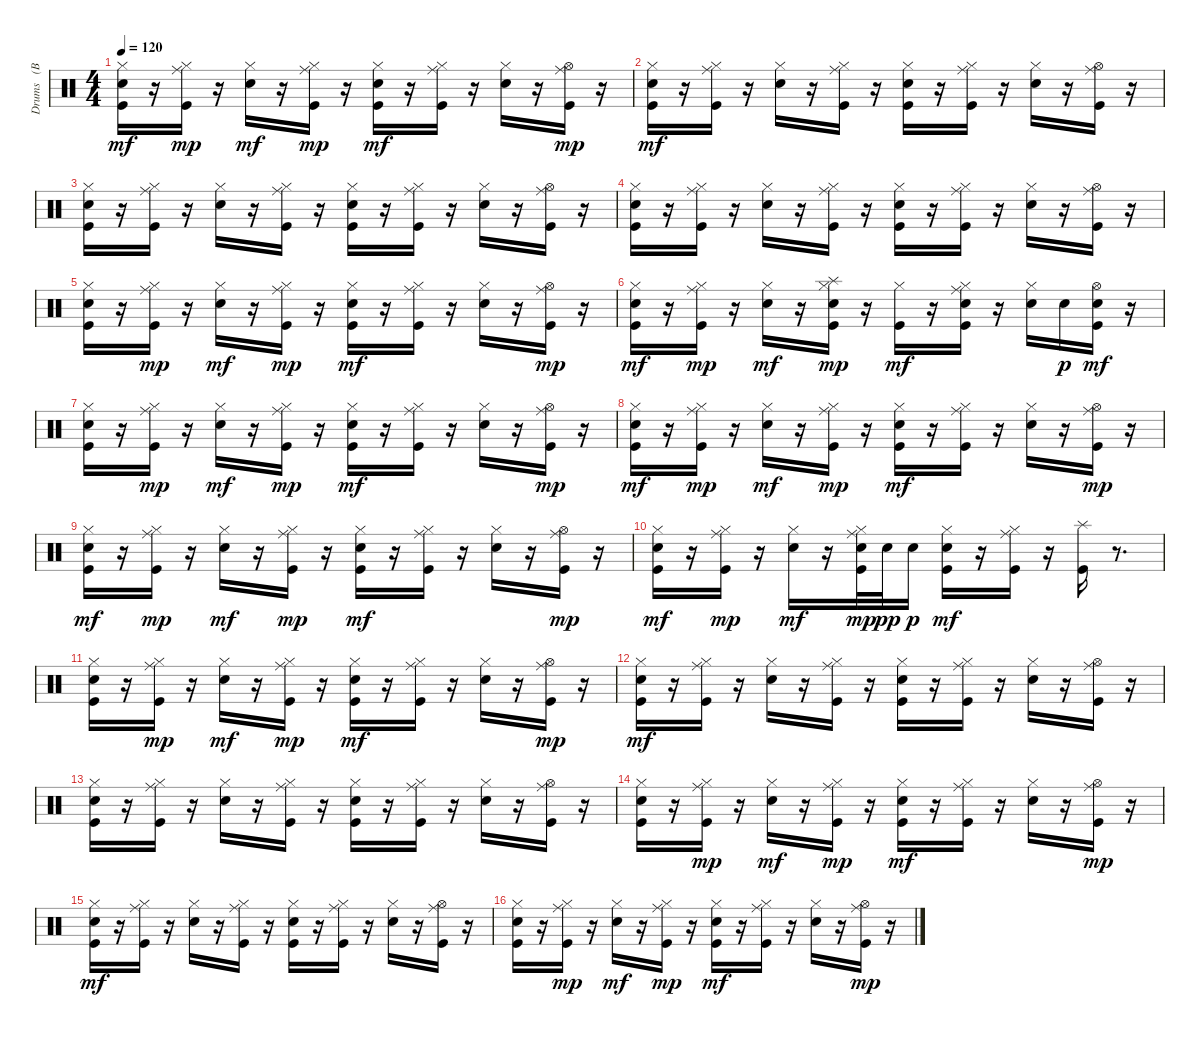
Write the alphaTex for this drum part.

\track ("Drums   (BB)" "Drums   (B") {instrument percussion}
\staff {score}
\articulation defaults
\ts (4 4)
\tempo 120
\clef neutral
\ks c
("Kick (hit)" "Electric Snare (hit)" "Hi-Hat (closed)").16{dy mf} r.16 ("Kick (hit)" "Hi-Hat (closed)" "Ride (middle)").16{dy mp} r.16 ("Electric Snare (hit)" "Hi-Hat (closed)").16{dy mf} r.16 ("Kick (hit)" "Hi-Hat (closed)" "Ride (middle)").16{dy mp} r.16 ("Kick (hit)" "Electric Snare (hit)" "Hi-Hat (closed)").16{dy mf} r.16 ("Kick (hit)" "Hi-Hat (closed)" "Ride (middle)").16 r.16 ("Electric Snare (hit)" "Hi-Hat (closed)").16 r.16 ("Kick (hit)" "Hi-Hat (open)" "Ride (middle)").16{dy mp} r.16 |
("Kick (hit)" "Electric Snare (hit)" "Hi-Hat (closed)").16{dy mf} r.16 ("Kick (hit)" "Hi-Hat (closed)" "Ride (middle)").16 r.16 ("Electric Snare (hit)" "Hi-Hat (closed)").16 r.16 ("Kick (hit)" "Hi-Hat (closed)" "Ride (middle)").16 r.16 ("Kick (hit)" "Electric Snare (hit)" "Hi-Hat (closed)").16 r.16 ("Kick (hit)" "Hi-Hat (closed)" "Ride (middle)").16 r.16 ("Electric Snare (hit)" "Hi-Hat (closed)").16 r.16 ("Kick (hit)" "Hi-Hat (open)" "Ride (middle)").16 r.16 |
("Kick (hit)" "Electric Snare (hit)" "Hi-Hat (closed)").16 r.16 ("Kick (hit)" "Hi-Hat (closed)" "Ride (middle)").16 r.16 ("Electric Snare (hit)" "Hi-Hat (closed)").16 r.16 ("Kick (hit)" "Hi-Hat (closed)" "Ride (middle)").16 r.16 ("Kick (hit)" "Electric Snare (hit)" "Hi-Hat (closed)").16 r.16 ("Kick (hit)" "Hi-Hat (closed)" "Ride (middle)").16 r.16 ("Electric Snare (hit)" "Hi-Hat (closed)").16 r.16 ("Kick (hit)" "Hi-Hat (open)" "Ride (middle)").16 r.16 |
("Kick (hit)" "Electric Snare (hit)" "Hi-Hat (closed)").16 r.16 ("Kick (hit)" "Hi-Hat (closed)" "Ride (middle)").16 r.16 ("Electric Snare (hit)" "Hi-Hat (closed)").16 r.16 ("Kick (hit)" "Hi-Hat (closed)" "Ride (middle)").16 r.16 ("Kick (hit)" "Electric Snare (hit)" "Hi-Hat (closed)").16 r.16 ("Kick (hit)" "Hi-Hat (closed)" "Ride (middle)").16 r.16 ("Electric Snare (hit)" "Hi-Hat (closed)").16 r.16 ("Kick (hit)" "Hi-Hat (open)" "Ride (middle)").16 r.16 |
("Kick (hit)" "Electric Snare (hit)" "Hi-Hat (closed)").16 r.16 ("Kick (hit)" "Hi-Hat (closed)" "Ride (middle)").16{dy mp} r.16 ("Electric Snare (hit)" "Hi-Hat (closed)").16{dy mf} r.16 ("Kick (hit)" "Hi-Hat (closed)" "Ride (middle)").16{dy mp} r.16 ("Kick (hit)" "Electric Snare (hit)" "Hi-Hat (closed)").16{dy mf} r.16 ("Kick (hit)" "Hi-Hat (closed)" "Ride (middle)").16 r.16 ("Electric Snare (hit)" "Hi-Hat (closed)").16 r.16 ("Kick (hit)" "Hi-Hat (open)" "Ride (middle)").16{dy mp} r.16 |
("Kick (hit)" "Electric Snare (hit)" "Hi-Hat (closed)").16{dy mf} r.16 ("Kick (hit)" "Hi-Hat (closed)" "Ride (middle)").16{dy mp} r.16 ("Electric Snare (hit)" "Hi-Hat (closed)").16{dy mf} r.16 ("Kick (hit)" "Electric Snare (hit)" "Hi-Hat (closed)" "Splash (hit)").16{dy mp} r.16 ("Kick (hit)" "Hi-Hat (closed)").16{dy mf} r.16 ("Kick (hit)" "Electric Snare (hit)" "Hi-Hat (closed)" "Ride (middle)").16 r.16 ("Electric Snare (hit)" "Hi-Hat (closed)").16 "Electric Snare (hit)".16{dy p} ("Kick (hit)" "Electric Snare (hit)" "Hi-Hat (open)").16{dy mf} r.16 |
("Kick (hit)" "Electric Snare (hit)" "Hi-Hat (closed)").16 r.16 ("Kick (hit)" "Hi-Hat (closed)" "Ride (middle)").16{dy mp} r.16 ("Electric Snare (hit)" "Hi-Hat (closed)").16{dy mf} r.16 ("Kick (hit)" "Hi-Hat (closed)" "Ride (middle)").16{dy mp} r.16 ("Kick (hit)" "Electric Snare (hit)" "Hi-Hat (closed)").16{dy mf} r.16 ("Kick (hit)" "Hi-Hat (closed)" "Ride (middle)").16 r.16 ("Electric Snare (hit)" "Hi-Hat (closed)").16 r.16 ("Kick (hit)" "Hi-Hat (open)" "Ride (middle)").16{dy mp} r.16 |
("Kick (hit)" "Electric Snare (hit)" "Hi-Hat (closed)").16{dy mf} r.16 ("Kick (hit)" "Hi-Hat (closed)" "Ride (middle)").16{dy mp} r.16 ("Electric Snare (hit)" "Hi-Hat (closed)").16{dy mf} r.16 ("Kick (hit)" "Hi-Hat (closed)" "Ride (middle)").16{dy mp} r.16 ("Kick (hit)" "Electric Snare (hit)" "Hi-Hat (closed)").16{dy mf} r.16 ("Kick (hit)" "Hi-Hat (closed)" "Ride (middle)").16 r.16 ("Electric Snare (hit)" "Hi-Hat (closed)").16 r.16 ("Kick (hit)" "Hi-Hat (open)" "Ride (middle)").16{dy mp} r.16 |
("Kick (hit)" "Electric Snare (hit)" "Hi-Hat (closed)").16{dy mf} r.16 ("Kick (hit)" "Hi-Hat (closed)" "Ride (middle)").16{dy mp} r.16 ("Electric Snare (hit)" "Hi-Hat (closed)").16{dy mf} r.16 ("Kick (hit)" "Hi-Hat (closed)" "Ride (middle)").16{dy mp} r.16 ("Kick (hit)" "Electric Snare (hit)" "Hi-Hat (closed)").16{dy mf} r.16 ("Kick (hit)" "Hi-Hat (closed)" "Ride (middle)").16 r.16 ("Electric Snare (hit)" "Hi-Hat (closed)").16 r.16 ("Kick (hit)" "Hi-Hat (open)" "Ride (middle)").16{dy mp} r.16 |
("Kick (hit)" "Electric Snare (hit)" "Hi-Hat (closed)").16{dy mf} r.16 ("Kick (hit)" "Hi-Hat (closed)" "Ride (middle)").16{dy mp} r.16 ("Electric Snare (hit)" "Hi-Hat (closed)").16{dy mf} r.16 ("Kick (hit)" "Electric Snare (hit)" "Hi-Hat (closed)" "Ride (middle)").32{dy mp} "Electric Snare (hit)".32{dy pp} "Electric Snare (hit)".16{dy p} ("Kick (hit)" "Electric Snare (hit)" "Hi-Hat (closed)").16{dy mf} r.16 ("Kick (hit)" "Hi-Hat (closed)" "Ride (middle)").16 r.16 ("Kick (hit)" "Splash (hit)").16 r.8{d} |
("Kick (hit)" "Electric Snare (hit)" "Hi-Hat (closed)").16 r.16 ("Kick (hit)" "Hi-Hat (closed)" "Ride (middle)").16{dy mp} r.16 ("Electric Snare (hit)" "Hi-Hat (closed)").16{dy mf} r.16 ("Kick (hit)" "Hi-Hat (closed)" "Ride (middle)").16{dy mp} r.16 ("Kick (hit)" "Electric Snare (hit)" "Hi-Hat (closed)").16{dy mf} r.16 ("Kick (hit)" "Hi-Hat (closed)" "Ride (middle)").16 r.16 ("Electric Snare (hit)" "Hi-Hat (closed)").16 r.16 ("Kick (hit)" "Hi-Hat (open)" "Ride (middle)").16{dy mp} r.16 |
("Kick (hit)" "Electric Snare (hit)" "Hi-Hat (closed)").16{dy mf} r.16 ("Kick (hit)" "Hi-Hat (closed)" "Ride (middle)").16 r.16 ("Electric Snare (hit)" "Hi-Hat (closed)").16 r.16 ("Kick (hit)" "Hi-Hat (closed)" "Ride (middle)").16 r.16 ("Kick (hit)" "Electric Snare (hit)" "Hi-Hat (closed)").16 r.16 ("Kick (hit)" "Hi-Hat (closed)" "Ride (middle)").16 r.16 ("Electric Snare (hit)" "Hi-Hat (closed)").16 r.16 ("Kick (hit)" "Hi-Hat (open)" "Ride (middle)").16 r.16 |
("Kick (hit)" "Electric Snare (hit)" "Hi-Hat (closed)").16 r.16 ("Kick (hit)" "Hi-Hat (closed)" "Ride (middle)").16 r.16 ("Electric Snare (hit)" "Hi-Hat (closed)").16 r.16 ("Kick (hit)" "Hi-Hat (closed)" "Ride (middle)").16 r.16 ("Kick (hit)" "Electric Snare (hit)" "Hi-Hat (closed)").16 r.16 ("Kick (hit)" "Hi-Hat (closed)" "Ride (middle)").16 r.16 ("Electric Snare (hit)" "Hi-Hat (closed)").16 r.16 ("Kick (hit)" "Hi-Hat (open)" "Ride (middle)").16 r.16 |
("Kick (hit)" "Electric Snare (hit)" "Hi-Hat (closed)").16 r.16 ("Kick (hit)" "Hi-Hat (closed)" "Ride (middle)").16{dy mp} r.16 ("Electric Snare (hit)" "Hi-Hat (closed)").16{dy mf} r.16 ("Kick (hit)" "Hi-Hat (closed)" "Ride (middle)").16{dy mp} r.16 ("Kick (hit)" "Electric Snare (hit)" "Hi-Hat (closed)").16{dy mf} r.16 ("Kick (hit)" "Hi-Hat (closed)" "Ride (middle)").16 r.16 ("Electric Snare (hit)" "Hi-Hat (closed)").16 r.16 ("Kick (hit)" "Hi-Hat (open)" "Ride (middle)").16{dy mp} r.16 |
("Kick (hit)" "Electric Snare (hit)" "Hi-Hat (closed)").16{dy mf} r.16 ("Kick (hit)" "Hi-Hat (closed)" "Ride (middle)").16 r.16 ("Electric Snare (hit)" "Hi-Hat (closed)").16 r.16 ("Kick (hit)" "Hi-Hat (closed)" "Ride (middle)").16 r.16 ("Kick (hit)" "Electric Snare (hit)" "Hi-Hat (closed)").16 r.16 ("Kick (hit)" "Hi-Hat (closed)" "Ride (middle)").16 r.16 ("Electric Snare (hit)" "Hi-Hat (closed)").16 r.16 ("Kick (hit)" "Hi-Hat (open)" "Ride (middle)").16 r.16 |
("Kick (hit)" "Electric Snare (hit)" "Hi-Hat (closed)").16 r.16 ("Kick (hit)" "Hi-Hat (closed)" "Ride (middle)").16{dy mp} r.16 ("Electric Snare (hit)" "Hi-Hat (closed)").16{dy mf} r.16 ("Kick (hit)" "Hi-Hat (closed)" "Ride (middle)").16{dy mp} r.16 ("Kick (hit)" "Electric Snare (hit)" "Hi-Hat (closed)").16{dy mf} r.16 ("Kick (hit)" "Hi-Hat (closed)" "Ride (middle)").16 r.16 ("Electric Snare (hit)" "Hi-Hat (closed)").16 r.16 ("Kick (hit)" "Hi-Hat (open)" "Ride (middle)").16{dy mp} r.16
